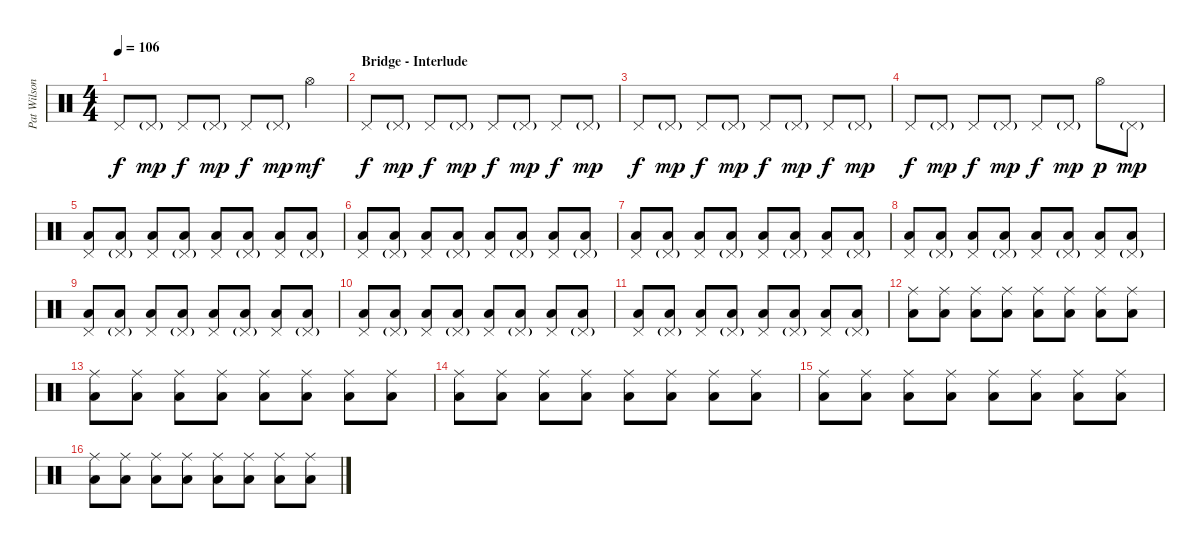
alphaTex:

\track ("Pat Wilson" "Pat Wilson") {instrument percussion}
\staff {score}
\articulation defaults
\ts (4 4)
\tempo 106
\clef neutral
\ks c "Pedal Hi-Hat (hit)".8{dy f} "Pedal Hi-Hat (hit)"{g}.8{dy mp} "Pedal Hi-Hat (hit)".8{dy f} "Pedal Hi-Hat (hit)"{g}.8{dy mp} "Pedal Hi-Hat (hit)".8{dy f} "Pedal Hi-Hat (hit)"{g}.8{dy mp} "Hi-Hat (open)".4{dy mf}
|
\section ("" "Bridge - Interlude")
"Pedal Hi-Hat (hit)".8{dy f} "Pedal Hi-Hat (hit)"{g}.8{dy mp} "Pedal Hi-Hat (hit)".8{dy f} "Pedal Hi-Hat (hit)"{g}.8{dy mp} "Pedal Hi-Hat (hit)".8{dy f} "Pedal Hi-Hat (hit)"{g}.8{dy mp} "Pedal Hi-Hat (hit)".8{dy f} "Pedal Hi-Hat (hit)"{g}.8{dy mp} |
"Pedal Hi-Hat (hit)".8{dy f} "Pedal Hi-Hat (hit)"{g}.8{dy mp} "Pedal Hi-Hat (hit)".8{dy f} "Pedal Hi-Hat (hit)"{g}.8{dy mp} "Pedal Hi-Hat (hit)".8{dy f} "Pedal Hi-Hat (hit)"{g}.8{dy mp} "Pedal Hi-Hat (hit)".8{dy f} "Pedal Hi-Hat (hit)"{g}.8{dy mp} |
"Pedal Hi-Hat (hit)".8{dy f} "Pedal Hi-Hat (hit)"{g}.8{dy mp} "Pedal Hi-Hat (hit)".8{dy f} "Pedal Hi-Hat (hit)"{g}.8{dy mp} "Pedal Hi-Hat (hit)".8{dy f} "Pedal Hi-Hat (hit)"{g}.8{dy mp} "Hi-Hat (open)".8{dy p} "Pedal Hi-Hat (hit)"{g}.8{dy mp} |
("Pedal Hi-Hat (hit)" "Low Floor Tom (hit)").8 ("Pedal Hi-Hat (hit)"{g} "Low Floor Tom (hit)").8 ("Pedal Hi-Hat (hit)" "Low Tom (hit)").8 ("Pedal Hi-Hat (hit)"{g} "Low Floor Tom (hit)").8 ("Pedal Hi-Hat (hit)" "Low Floor Tom (hit)").8 ("Pedal Hi-Hat (hit)"{g} "Low Floor Tom (hit)").8 ("Pedal Hi-Hat (hit)" "Low Tom (hit)").8 ("Pedal Hi-Hat (hit)"{g} "Low Floor Tom (hit)").8 |
("Pedal Hi-Hat (hit)" "Low Floor Tom (hit)").8 ("Pedal Hi-Hat (hit)"{g} "Low Floor Tom (hit)").8 ("Pedal Hi-Hat (hit)" "Low Tom (hit)").8 ("Pedal Hi-Hat (hit)"{g} "Low Floor Tom (hit)").8 ("Pedal Hi-Hat (hit)" "Low Floor Tom (hit)").8 ("Pedal Hi-Hat (hit)"{g} "Low Floor Tom (hit)").8 ("Pedal Hi-Hat (hit)" "Low Tom (hit)").8 ("Pedal Hi-Hat (hit)"{g} "Low Floor Tom (hit)").8 |
("Pedal Hi-Hat (hit)" "Low Floor Tom (hit)").8 ("Pedal Hi-Hat (hit)"{g} "Low Floor Tom (hit)").8 ("Pedal Hi-Hat (hit)" "Low Tom (hit)").8 ("Pedal Hi-Hat (hit)"{g} "Low Floor Tom (hit)").8 ("Pedal Hi-Hat (hit)" "Low Floor Tom (hit)").8 ("Pedal Hi-Hat (hit)"{g} "Low Floor Tom (hit)").8 ("Pedal Hi-Hat (hit)" "Low Tom (hit)").8 ("Pedal Hi-Hat (hit)"{g} "Low Floor Tom (hit)").8 |
("Pedal Hi-Hat (hit)" "Low Floor Tom (hit)").8 ("Pedal Hi-Hat (hit)"{g} "Low Floor Tom (hit)").8 ("Pedal Hi-Hat (hit)" "Low Tom (hit)").8 ("Pedal Hi-Hat (hit)"{g} "Low Floor Tom (hit)").8 ("Pedal Hi-Hat (hit)" "Low Floor Tom (hit)").8 ("Pedal Hi-Hat (hit)"{g} "Low Floor Tom (hit)").8 ("Pedal Hi-Hat (hit)" "Low Tom (hit)").8 ("Pedal Hi-Hat (hit)"{g} "Low Floor Tom (hit)").8 |
("Pedal Hi-Hat (hit)" "Low Floor Tom (hit)").8 ("Pedal Hi-Hat (hit)"{g} "Low Floor Tom (hit)").8 ("Pedal Hi-Hat (hit)" "Low Tom (hit)").8 ("Pedal Hi-Hat (hit)"{g} "Low Floor Tom (hit)").8 ("Pedal Hi-Hat (hit)" "Low Floor Tom (hit)").8 ("Pedal Hi-Hat (hit)"{g} "Low Floor Tom (hit)").8 ("Pedal Hi-Hat (hit)" "Low Tom (hit)").8 ("Pedal Hi-Hat (hit)"{g} "Low Floor Tom (hit)").8 |
("Pedal Hi-Hat (hit)" "Low Floor Tom (hit)").8 ("Pedal Hi-Hat (hit)"{g} "Low Floor Tom (hit)").8 ("Pedal Hi-Hat (hit)" "Low Tom (hit)").8 ("Pedal Hi-Hat (hit)"{g} "Low Floor Tom (hit)").8 ("Pedal Hi-Hat (hit)" "Low Floor Tom (hit)").8 ("Pedal Hi-Hat (hit)"{g} "Low Floor Tom (hit)").8 ("Pedal Hi-Hat (hit)" "Low Tom (hit)").8 ("Pedal Hi-Hat (hit)"{g} "Low Floor Tom (hit)").8 |
("Pedal Hi-Hat (hit)" "Low Floor Tom (hit)").8 ("Pedal Hi-Hat (hit)"{g} "Low Floor Tom (hit)").8 ("Pedal Hi-Hat (hit)" "Low Tom (hit)").8 ("Pedal Hi-Hat (hit)"{g} "Low Floor Tom (hit)").8 ("Pedal Hi-Hat (hit)" "Low Floor Tom (hit)").8 ("Pedal Hi-Hat (hit)"{g} "Low Floor Tom (hit)").8 ("Pedal Hi-Hat (hit)" "Low Tom (hit)").8 ("Pedal Hi-Hat (hit)"{g} "Low Floor Tom (hit)").8 |
("Ride (middle)" "Low Floor Tom (hit)").8 ("Ride (middle)" "Low Floor Tom (hit)").8 ("Ride (middle)" "Low Tom (hit)").8 ("Ride (middle)" "Low Floor Tom (hit)").8 ("Ride (middle)" "Low Floor Tom (hit)").8 ("Ride (middle)" "Low Floor Tom (hit)").8 ("Ride (middle)" "Low Tom (hit)").8 ("Ride (middle)" "Low Floor Tom (hit)").8 |
("Ride (middle)" "Low Floor Tom (hit)").8 ("Ride (middle)" "Low Floor Tom (hit)").8 ("Ride (middle)" "Low Tom (hit)").8 ("Ride (middle)" "Low Floor Tom (hit)").8 ("Ride (middle)" "Low Floor Tom (hit)").8 ("Ride (middle)" "Low Floor Tom (hit)").8 ("Ride (middle)" "Low Tom (hit)").8 ("Ride (middle)" "Low Floor Tom (hit)").8 |
("Ride (middle)" "Low Floor Tom (hit)").8 ("Ride (middle)" "Low Floor Tom (hit)").8 ("Ride (middle)" "Low Tom (hit)").8 ("Ride (middle)" "Low Floor Tom (hit)").8 ("Ride (middle)" "Low Floor Tom (hit)").8 ("Ride (middle)" "Low Floor Tom (hit)").8 ("Ride (middle)" "Low Tom (hit)").8 ("Ride (middle)" "Low Floor Tom (hit)").8 |
("Ride (middle)" "Low Floor Tom (hit)").8 ("Ride (middle)" "Low Floor Tom (hit)").8 ("Ride (middle)" "Low Tom (hit)").8 ("Ride (middle)" "Low Floor Tom (hit)").8 ("Ride (middle)" "Low Floor Tom (hit)").8 ("Ride (middle)" "Low Floor Tom (hit)").8 ("Ride (middle)" "Low Tom (hit)").8 ("Ride (middle)" "Low Floor Tom (hit)").8 |
("Ride (middle)" "Low Floor Tom (hit)").8 ("Ride (middle)" "Low Floor Tom (hit)").8 ("Ride (middle)" "Low Tom (hit)").8 ("Ride (middle)" "Low Floor Tom (hit)").8 ("Ride (middle)" "Low Floor Tom (hit)").8 ("Ride (middle)" "Low Floor Tom (hit)").8 ("Ride (middle)" "Low Tom (hit)").8 ("Ride (middle)" "Low Floor Tom (hit)").8
